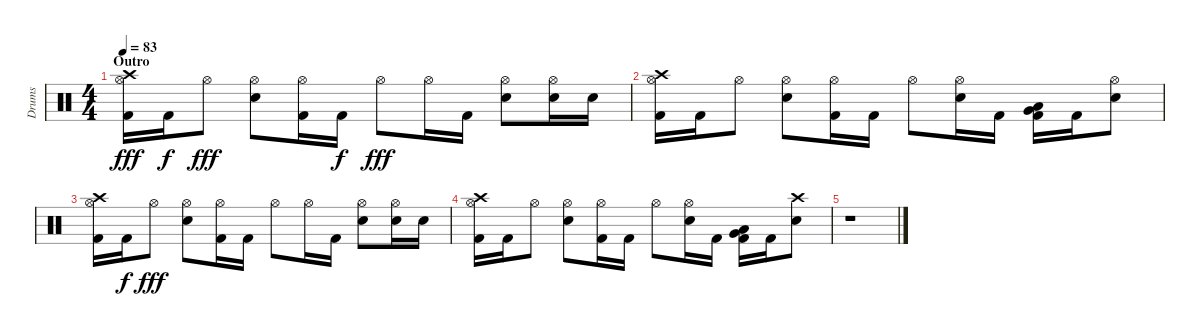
\track ("Drums" "Drums") {instrument percussion}
\staff {score}
\articulation defaults
\ts (4 4)
\section ("" "Outro")
\tempo 83
\clef neutral
\ks c
("Crash high (hit)" "Hi-Hat (open)" "Kick (hit) 2").16{dy fff} "Kick (hit) 2".16{dy f} "Hi-Hat (open)".8{dy fff} ("Hi-Hat (open)" "Electric Snare (hit)").8 ("Hi-Hat (open)" "Kick (hit) 2").16 "Kick (hit) 2".16{dy f} "Hi-Hat (open)".8{dy fff} "Hi-Hat (open)".16 "Kick (hit) 2".16 ("Hi-Hat (open)" "Electric Snare (hit)").8 ("Hi-Hat (open)" "Electric Snare (hit)").16 "Electric Snare (hit)".16 |
("Crash high (hit)" "Hi-Hat (open)" "Kick (hit) 2").16 "Kick (hit) 2".16 "Hi-Hat (open)".8 ("Hi-Hat (open)" "Electric Snare (hit)").8 ("Hi-Hat (open)" "Kick (hit) 2").16 "Kick (hit) 2".16 "Hi-Hat (open)".8 ("Hi-Hat (open)" "Electric Snare (hit)").16 "Kick (hit) 2".16 ("Very Low Tom (hit)" "Low Tom (hit)" "Kick (hit) 2").16 "Kick (hit) 2".16 ("Hi-Hat (open)" "Electric Snare (hit)").8 |
("Crash high (hit)" "Hi-Hat (open)" "Kick (hit) 2").16 "Kick (hit) 2".16{dy f} "Hi-Hat (open)".8{dy fff} ("Hi-Hat (open)" "Electric Snare (hit)").8 ("Hi-Hat (open)" "Kick (hit) 2").16 "Kick (hit) 2".16 "Hi-Hat (open)".8 "Hi-Hat (open)".16 "Kick (hit) 2".16 ("Hi-Hat (open)" "Electric Snare (hit)").8 ("Hi-Hat (open)" "Electric Snare (hit)").16 "Electric Snare (hit)".16 |
("Crash high (hit)" "Hi-Hat (open)" "Kick (hit) 2").16 "Kick (hit) 2".16 "Hi-Hat (open)".8 ("Hi-Hat (open)" "Electric Snare (hit)").8 ("Hi-Hat (open)" "Kick (hit) 2").16 "Kick (hit) 2".16 "Hi-Hat (open)".8 ("Hi-Hat (open)" "Electric Snare (hit)").16 "Kick (hit) 2".16 ("Very Low Tom (hit)" "Low Tom (hit)" "Kick (hit) 2").16 "Kick (hit) 2".16 ("Crash high (hit)" "Electric Snare (hit)").8 |
r.1
